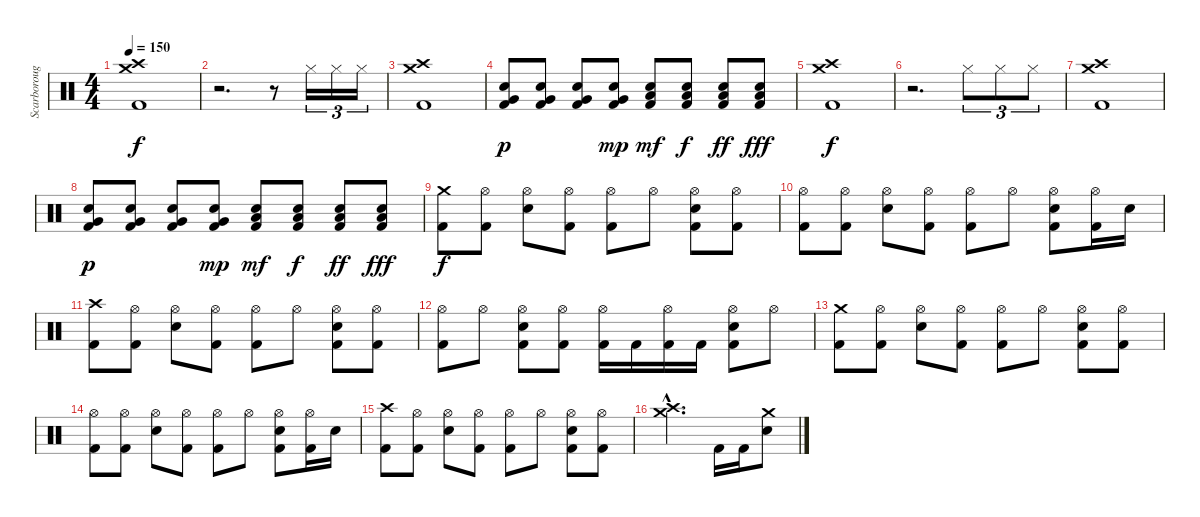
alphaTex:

\track ("Scarborough" "Scarboroug") {instrument percussion}
\staff {score}
\articulation defaults
\ts (4 4)
\tempo 150
\clef neutral
\ks c
("Crash medium (hit)" "Crash high (hit)" "Kick (hit) 2").1{dy f} |
r.2{d} r.8 "Hi-Hat (closed)".16{tu (3 2)} "Hi-Hat (closed)".16{tu (3 2)} "Hi-Hat (closed)".16{tu (3 2)} |
("Crash medium (hit)" "Crash high (hit)" "Kick (hit) 2").1 |
("Kick (hit) 2" "Snare (hit) 2" "Very Low Tom (hit)").8{dy p} ("Kick (hit) 2" "Snare (hit) 2" "Very Low Tom (hit)").8 ("Kick (hit) 2" "Snare (hit) 2" "Very Low Tom (hit)").8 ("Kick (hit) 2" "Snare (hit) 2" "Very Low Tom (hit)").8{dy mp} ("Kick (hit) 2" "Snare (hit) 2" "Low Floor Tom (hit)").8{dy mf} ("Kick (hit) 2" "Snare (hit) 2" "Low Floor Tom (hit)").8{dy f} ("Kick (hit) 2" "Snare (hit) 2" "Low Floor Tom (hit)").8{dy ff} ("Kick (hit) 2" "Snare (hit) 2" "Low Floor Tom (hit)").8{dy fff} |
("Crash medium (hit)" "Crash high (hit)" "Kick (hit) 2").1{dy f} |
r.2{d} "Hi-Hat (closed)".8{tu (3 2)} "Hi-Hat (closed)".8{tu (3 2)} "Hi-Hat (closed)".8{tu (3 2)} |
("Crash medium (hit)" "Crash high (hit)" "Kick (hit) 2").1 |
("Kick (hit) 2" "Snare (hit) 2" "Very Low Tom (hit)").8{dy p} ("Kick (hit) 2" "Snare (hit) 2" "Very Low Tom (hit)").8 ("Kick (hit) 2" "Snare (hit) 2" "Very Low Tom (hit)").8 ("Kick (hit) 2" "Snare (hit) 2" "Very Low Tom (hit)").8{dy mp} ("Kick (hit) 2" "Snare (hit) 2" "Low Floor Tom (hit)").8{dy mf} ("Kick (hit) 2" "Snare (hit) 2" "Low Floor Tom (hit)").8{dy f} ("Kick (hit) 2" "Snare (hit) 2" "Low Floor Tom (hit)").8{dy ff} ("Kick (hit) 2" "Snare (hit) 2" "Low Floor Tom (hit)").8{dy fff} |
("Crash medium (hit)" "Kick (hit) 2").8{dy f} ("Hi-Hat (open)" "Kick (hit) 2").8 ("Hi-Hat (open)" "Snare (hit) 2").8 ("Hi-Hat (open)" "Kick (hit) 2").8 ("Hi-Hat (open)" "Kick (hit) 2").8 "Hi-Hat (open)".8 ("Hi-Hat (open)" "Kick (hit) 2" "Snare (hit) 2").8 ("Hi-Hat (open)" "Kick (hit) 2").8 |
("Hi-Hat (open)" "Kick (hit) 2").8 ("Hi-Hat (open)" "Kick (hit) 2").8 ("Hi-Hat (open)" "Snare (hit) 2").8 ("Hi-Hat (open)" "Kick (hit) 2").8 ("Hi-Hat (open)" "Kick (hit) 2").8 "Hi-Hat (open)".8 ("Hi-Hat (open)" "Kick (hit) 2" "Snare (hit) 2").8 ("Hi-Hat (open)" "Kick (hit) 2").16 "Snare (hit) 2".16 |
("Crash high (hit)" "Kick (hit) 2").8 ("Hi-Hat (open)" "Kick (hit) 2").8 ("Hi-Hat (open)" "Snare (hit) 2").8 ("Hi-Hat (open)" "Kick (hit) 2").8 ("Hi-Hat (open)" "Kick (hit) 2").8 "Hi-Hat (open)".8 ("Hi-Hat (open)" "Kick (hit) 2" "Snare (hit) 2").8 ("Hi-Hat (open)" "Kick (hit) 2").8 |
("Hi-Hat (open)" "Kick (hit) 2").8 "Hi-Hat (open)".8 ("Hi-Hat (open)" "Kick (hit) 2" "Snare (hit) 2").8 ("Hi-Hat (open)" "Kick (hit) 2").8 ("Hi-Hat (open)" "Kick (hit) 2").16 "Kick (hit) 2".16 ("Hi-Hat (open)" "Kick (hit) 2").16 "Kick (hit) 2".16 ("Hi-Hat (open)" "Kick (hit) 2" "Snare (hit) 2").8 "Hi-Hat (open)".8 |
("Crash medium (hit)" "Kick (hit) 2").8 ("Hi-Hat (open)" "Kick (hit) 2").8 ("Hi-Hat (open)" "Snare (hit) 2").8 ("Hi-Hat (open)" "Kick (hit) 2").8 ("Hi-Hat (open)" "Kick (hit) 2").8 "Hi-Hat (open)".8 ("Hi-Hat (open)" "Kick (hit) 2" "Snare (hit) 2").8 ("Hi-Hat (open)" "Kick (hit) 2").8 |
("Hi-Hat (open)" "Kick (hit) 2").8 ("Hi-Hat (open)" "Kick (hit) 2").8 ("Hi-Hat (open)" "Snare (hit) 2").8 ("Hi-Hat (open)" "Kick (hit) 2").8 ("Hi-Hat (open)" "Kick (hit) 2").8 "Hi-Hat (open)".8 ("Hi-Hat (open)" "Kick (hit) 2" "Snare (hit) 2").8 ("Hi-Hat (open)" "Kick (hit) 2").16 "Snare (hit) 2".16 |
("Crash high (hit)" "Kick (hit) 2").8 ("Hi-Hat (open)" "Kick (hit) 2").8 ("Hi-Hat (open)" "Snare (hit) 2").8 ("Hi-Hat (open)" "Kick (hit) 2").8 ("Hi-Hat (open)" "Kick (hit) 2").8 "Hi-Hat (open)".8 ("Hi-Hat (open)" "Kick (hit) 2" "Snare (hit) 2").8 ("Hi-Hat (open)" "Kick (hit) 2").8 |
("Crash medium (hit)"{hac} "Crash high (hit)"{hac}).2{d} "Kick (hit) 2".16 "Kick (hit) 2".16 ("Crash medium (hit)" "Snare (hit) 2").8
